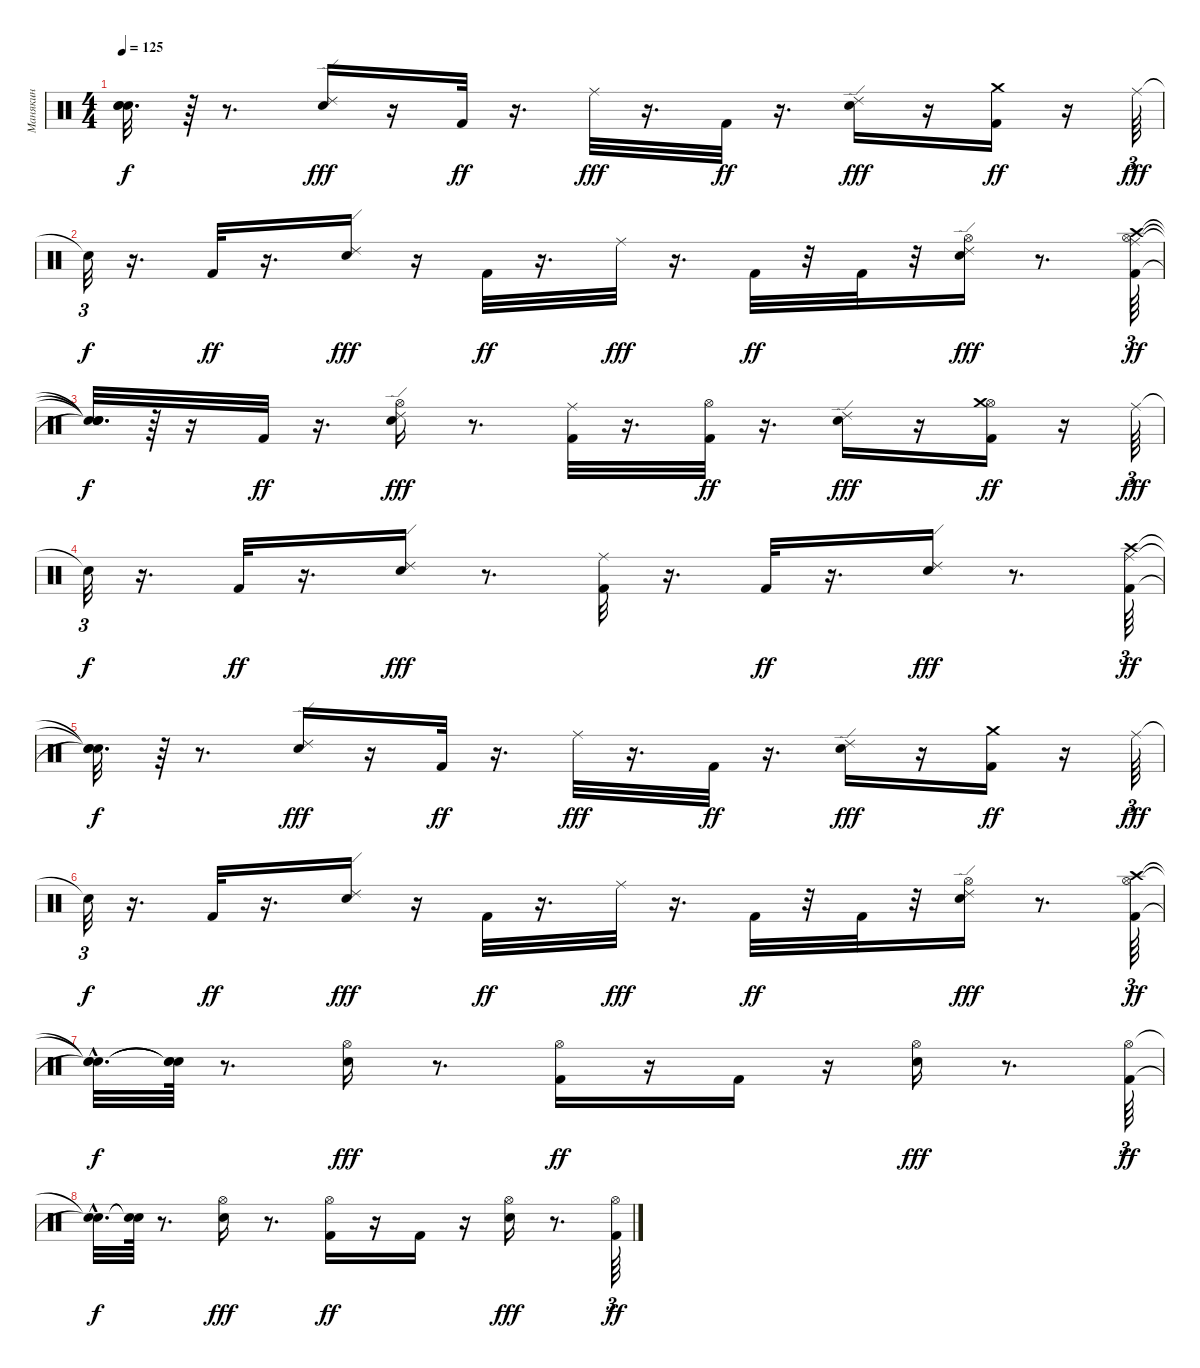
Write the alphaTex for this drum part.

\track ("Манякин" "Манякин") {instrument percussion}
\staff {score}
\articulation defaults
\ts (4 4)
\tempo 125
\clef neutral
\ks c
("Snare (hit)"{t} "Snare (hit)"{t} "Snare (hit)"{t}).32{d dy f} r.64 r.8{d} ("Snare (hit) 2" "Ride (edge) 2").16{dy fff} r.16 "Kick (hit) 2".32{dy ff} r.16{d} "Ride (middle)".32{dy fff} r.16{d} "Kick (hit) 2".32{dy ff} r.16{d} ("Snare (hit) 2" "Ride (edge) 2").16{dy fff} r.16 ("Kick (hit) 2" "Crash medium (hit)").16{dy ff} r.16 "Ride (middle)".64{tu (3 2) dy fff} |
"Snare (hit)"{t}.32{tu (3 2) dy f} r.16{d} "Kick (hit) 2".32{dy ff} r.16{d} ("Snare (hit) 2" "Ride (edge) 2").16{dy fff} r.16 "Kick (hit) 2".32{dy ff} r.16{d} "Ride (middle)".32{dy fff} r.16{d} "Kick (hit) 2".32{dy ff} r.32 "Kick (hit) 2".32 r.32 ("Snare (hit) 2" "Hi-Hat (open)" "Ride (edge) 2").16{dy fff} r.8{d} ("Kick (hit) 2" "Hi-Hat (open)" "Ride (middle)" "Crash high (hit)").64{tu (3 2) dy ff} |
("Snare (hit)"{t} "Snare (hit)"{t} "Snare (hit)"{t} "Snare (hit)"{t}).32{d dy f} r.64 r.16 "Kick (hit) 2".32{dy ff} r.16{d} ("Snare (hit) 2" "Hi-Hat (open)" "Ride (edge) 2").16{dy fff} r.8{d} ("Kick (hit) 2" "Ride (middle)").32 r.16{d} ("Kick (hit) 2" "Hi-Hat (open)").32{dy ff} r.16{d} ("Snare (hit) 2" "Ride (edge) 2").16{dy fff} r.16 ("Kick (hit) 2" "Hi-Hat (open)" "Crash medium (hit)").16{dy ff} r.16 "Ride (middle)".64{tu (3 2) dy fff} |
"Snare (hit)"{t}.32{tu (3 2) dy f} r.16{d} "Kick (hit) 2".32{dy ff} r.16{d} ("Snare (hit) 2" "Ride (edge) 2").16{dy fff} r.8{d} ("Kick (hit) 2" "Ride (middle)").32 r.16{d} "Kick (hit) 2".32{dy ff} r.16{d} ("Snare (hit) 2" "Ride (edge) 2").16{dy fff} r.8{d} ("Kick (hit) 2" "Ride (middle)" "Crash high (hit)").64{tu (3 2) dy ff} |
("Snare (hit)"{t} "Snare (hit)"{t} "Snare (hit)"{t}).32{d dy f} r.64 r.8{d} ("Snare (hit) 2" "Ride (edge) 2").16{dy fff} r.16 "Kick (hit) 2".32{dy ff} r.16{d} "Ride (middle)".32{dy fff} r.16{d} "Kick (hit) 2".32{dy ff} r.16{d} ("Snare (hit) 2" "Ride (edge) 2").16{dy fff} r.16 ("Kick (hit) 2" "Crash medium (hit)").16{dy ff} r.16 "Ride (middle)".64{tu (3 2) dy fff} |
"Snare (hit)"{t}.32{tu (3 2) dy f} r.16{d} "Kick (hit) 2".32{dy ff} r.16{d} ("Snare (hit) 2" "Ride (edge) 2").16{dy fff} r.16 "Kick (hit) 2".32{dy ff} r.16{d} "Ride (middle)".32{dy fff} r.16{d} "Kick (hit) 2".32{dy ff} r.32 "Kick (hit) 2".32 r.32 ("Snare (hit) 2" "Hi-Hat (open)" "Ride (edge) 2").16{dy fff} r.8{d} ("Kick (hit) 2" "Hi-Hat (open)" "Crash high (hit)").64{tu (3 2) dy ff} |
("Snare (hit)"{hac t} "Snare (hit)"{hac t} "Snare (hit)"{hac t}).32{d dy f} ("Snare (hit)"{t} "Snare (hit)"{t} "Snare (hit)"{t}).64 r.8{d} ("Snare (hit) 2" "Hi-Hat (open)").16{dy fff} r.8{d} ("Kick (hit) 2" "Hi-Hat (open)").16{dy ff} r.16 "Kick (hit) 2".16 r.16 ("Snare (hit) 2" "Hi-Hat (open)").16{dy fff} r.8{d} ("Kick (hit) 2" "Hi-Hat (open)").64{tu (3 2) dy ff} |
("Snare (hit)"{hac t} "Snare (hit)"{hac t}).32{d dy f} ("Snare (hit)"{t} "Snare (hit)"{t}).64 r.8{d} ("Snare (hit) 2" "Hi-Hat (open)").16{dy fff} r.8{d} ("Kick (hit) 2" "Hi-Hat (open)").16{dy ff} r.16 "Kick (hit) 2".16 r.16 ("Snare (hit) 2" "Hi-Hat (open)").16{dy fff} r.8{d} ("Kick (hit) 2" "Hi-Hat (open)").64{tu (3 2) dy ff}
